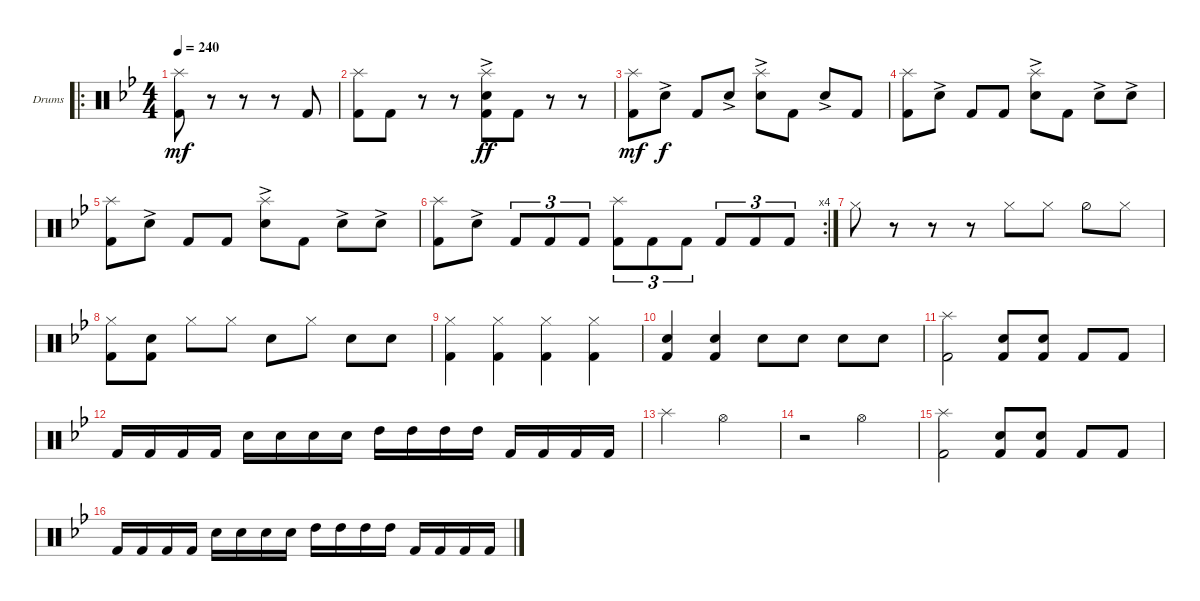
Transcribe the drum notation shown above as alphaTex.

\defaultSystemsLayout 4
\bracketExtendMode groupsimilarinstruments
\firstSystemTrackNameOrientation horizontal
\otherSystemsTrackNameOrientation horizontal
\track ("Drumkit" "Drums") {instrument percussion}
\staff {score}
\articulation defaults
\ro
\ts (4 4)
\tempo 240
\clef neutral
\scale
0.365591
\ks bb
("Kick (hit) 2"{acc forcenatural} "Splash (hit)"{acc forcenatural}).8{dy mf beam Down} r.8{beam Down} r.8{beam Down} r.8{beam Down} "Kick (hit) 2"{acc forcenatural}.8{beam Up} |
\scale
0.333333 ("Kick (hit) 2"{acc forcenatural} "Splash (hit)"{acc forcenatural}).8{beam Down} "Kick (hit) 2"{acc forcenatural}.8{beam Down} r.8{beam Down} r.8{beam Down} ("Kick (hit) 2"{acc forcenatural} "Splash (hit)"{acc forcenatural} "Snare (hit) 2"{ac acc forcenatural}).8{dy ff beam Down} "Kick (hit) 2"{acc forcenatural}.8{beam Down} r.8{beam Down} r.8{beam Down} |
\scale
0.333333 ("Kick (hit) 2"{acc forcenatural} "Splash (hit)"{acc forcenatural}).8{dy mf beam Down} "Snare (hit) 2"{ac acc forcenatural}.8{dy f beam Down} "Kick (hit) 2"{acc forcenatural}.8{beam Up} "Snare (hit) 2"{ac acc forcenatural}.8{beam Up} ("Splash (hit)"{acc forcenatural} "Snare (hit) 2"{ac acc forcenatural}).8{beam Down} "Kick (hit) 2"{acc forcenatural}.8{beam Down} "Snare (hit) 2"{ac acc forcenatural}.8{beam Up} "Kick (hit) 2"{acc forcenatural}.8{beam Up} |
\scale
0.333333 ("Kick (hit) 2"{acc forcenatural} "Splash (hit)"{acc forcenatural}).8{beam Down} "Snare (hit) 2"{ac acc forcenatural}.8{beam Down} "Kick (hit) 2"{acc forcenatural}.8{beam Up} "Kick (hit) 2"{acc forcenatural}.8{beam Up} ("Splash (hit)"{acc forcenatural} "Snare (hit) 2"{ac acc forcenatural}).8{beam Down} "Kick (hit) 2"{acc forcenatural}.8{beam Down} "Snare (hit) 2"{ac acc forcenatural}.8{beam Down} "Snare (hit) 2"{ac acc forcenatural}.8{beam Down} |
("Kick (hit) 2"{acc forcenatural} "Splash (hit)"{acc forcenatural}).8{beam Down} "Snare (hit) 2"{ac acc forcenatural}.8{beam Down} "Kick (hit) 2"{acc forcenatural}.8{beam Up} "Kick (hit) 2"{acc forcenatural}.8{beam Up} ("Splash (hit)"{acc forcenatural} "Snare (hit) 2"{ac acc forcenatural}).8{beam Down} "Kick (hit) 2"{acc forcenatural}.8{beam Down} "Snare (hit) 2"{ac acc forcenatural}.8{beam Down} "Snare (hit) 2"{ac acc forcenatural}.8{beam Down} |
\rc 4
("Kick (hit) 2"{acc forcenatural} "Splash (hit)"{acc forcenatural}).8{beam Down} "Snare (hit) 2"{ac acc forcenatural}.8{beam Down} "Kick (hit) 2"{acc forcenatural}.8{tu (3 2) beam Up} "Kick (hit) 2"{acc forcenatural}.8{tu (3 2) beam Up} "Kick (hit) 2"{acc forcenatural}.8{tu (3 2) beam Up} ("Kick (hit) 2"{acc forcenatural} "Splash (hit)"{acc forcenatural}).8{tu (3 2) beam Down} "Kick (hit) 2"{acc forcenatural}.8{tu (3 2) beam Down} "Kick (hit) 2"{acc forcenatural}.8{tu (3 2) beam Down} "Kick (hit) 2"{acc forcenatural}.8{tu (3 2) beam Up} "Kick (hit) 2"{acc forcenatural}.8{tu (3 2) beam Up} "Kick (hit) 2"{acc forcenatural}.8{tu (3 2) beam Up} |
"Hi-Hat (closed)"{acc forcenatural}.8{beam Down} r.8{beam Down} r.8{beam Down} r.8{beam Down} "Hi-Hat (closed)"{acc forcenatural}.8{beam Down} "Hi-Hat (closed)"{acc forcenatural}.8{beam Down} "Hi-Hat (half)"{acc forcenatural}.8{beam Down} "Hi-Hat (closed)"{acc forcenatural}.8{beam Down} |
("Hi-Hat (closed)"{acc forcenatural} "Kick (hit) 2"{acc forcenatural}).8{beam Down} ("Kick (hit) 2"{acc forcenatural} "Snare (hit) 2"{acc forcenatural}).8{beam Down} "Hi-Hat (closed)"{acc forcenatural}.8{beam Down} "Hi-Hat (closed)"{acc forcenatural}.8{beam Down} "Snare (hit) 2"{acc forcenatural}.8{beam Down} "Hi-Hat (closed)"{acc forcenatural}.8{beam Down} "Snare (hit) 2"{acc forcenatural}.8{beam Down} "Snare (hit) 2"{acc forcenatural}.8{beam Down} |
("Hi-Hat (closed)"{acc forcenatural} "Kick (hit) 2"{acc forcenatural}).4{beam Down} ("Hi-Hat (closed)"{acc forcenatural} "Kick (hit) 2"{acc forcenatural}).4{beam Down} ("Hi-Hat (closed)"{acc forcenatural} "Kick (hit) 2"{acc forcenatural}).4{beam Down} ("Hi-Hat (closed)"{acc forcenatural} "Kick (hit) 2"{acc forcenatural}).4{beam Down} |
("Snare (hit) 2"{acc forcenatural} "Kick (hit) 2"{acc forcenatural}).4{beam Up} ("Snare (hit) 2"{acc forcenatural} "Kick (hit) 2"{acc forcenatural}).4{beam Up} "Snare (hit) 2"{acc forcenatural}.8{beam Down} "Snare (hit) 2"{acc forcenatural}.8{beam Down} "Snare (hit) 2"{acc forcenatural}.8{beam Down} "Snare (hit) 2"{acc forcenatural}.8{beam Down} |
("Splash (hit)"{acc forcenatural} "Kick (hit) 2"{acc forcenatural}).2{beam Down} ("Kick (hit) 2"{acc forcenatural} "Snare (hit) 2"{acc forcenatural}).8{beam Up} ("Kick (hit) 2"{acc forcenatural} "Snare (hit) 2"{acc forcenatural}).8{beam Up} "Kick (hit) 2"{acc forcenatural}.8{beam Up} "Kick (hit) 2"{acc forcenatural}.8{beam Up} |
"Kick (hit) 2"{acc forcenatural}.16{beam Up} "Kick (hit) 2"{acc forcenatural}.16{beam Up} "Kick (hit) 2"{acc forcenatural}.16{beam Up} "Kick (hit) 2"{acc forcenatural}.16{beam Up} "Snare (hit) 2"{acc forcenatural}.16{beam Down} "Snare (hit) 2"{acc forcenatural}.16{beam Down} "Snare (hit) 2"{acc forcenatural}.16{beam Down} "Snare (hit) 2"{acc forcenatural}.16{beam Down} "High Tom (hit)"{acc forcenatural}.16{beam Down} "High Tom (hit)"{acc forcenatural}.16{beam Down} "High Tom (hit)"{acc forcenatural}.16{beam Down} "High Tom (hit)"{acc forcenatural}.16{beam Down} "Kick (hit) 2"{acc forcenatural}.16{beam Up} "Kick (hit) 2"{acc forcenatural}.16{beam Up} "Kick (hit) 2"{acc forcenatural}.16{beam Up} "Kick (hit) 2"{acc forcenatural}.16{beam Up} |
"Splash (hit)"{acc forcenatural}.2{beam Down} "Hi-Hat (open)"{acc forcenatural}.2{beam Down} |
r.2{beam Down} "Hi-Hat (open)"{acc forcenatural}.2{beam Down} |
("Splash (hit)"{acc forcenatural} "Kick (hit) 2"{acc forcenatural}).2{beam Down} ("Kick (hit) 2"{acc forcenatural} "Snare (hit) 2"{acc forcenatural}).8{beam Up} ("Kick (hit) 2"{acc forcenatural} "Snare (hit) 2"{acc forcenatural}).8{beam Up} "Kick (hit) 2"{acc forcenatural}.8{beam Up} "Kick (hit) 2"{acc forcenatural}.8{beam Up} |
"Kick (hit) 2"{acc forcenatural}.16{beam Up} "Kick (hit) 2"{acc forcenatural}.16{beam Up} "Kick (hit) 2"{acc forcenatural}.16{beam Up} "Kick (hit) 2"{acc forcenatural}.16{beam Up} "Snare (hit) 2"{acc forcenatural}.16{beam Down} "Snare (hit) 2"{acc forcenatural}.16{beam Down} "Snare (hit) 2"{acc forcenatural}.16{beam Down} "Snare (hit) 2"{acc forcenatural}.16{beam Down} "High Tom (hit)"{acc forcenatural}.16{beam Down} "High Tom (hit)"{acc forcenatural}.16{beam Down} "High Tom (hit)"{acc forcenatural}.16{beam Down} "High Tom (hit)"{acc forcenatural}.16{beam Down} "Kick (hit) 2"{acc forcenatural}.16{beam Up} "Kick (hit) 2"{acc forcenatural}.16{beam Up} "Kick (hit) 2"{acc forcenatural}.16{beam Up} "Kick (hit) 2"{acc forcenatural}.16{beam Up}
